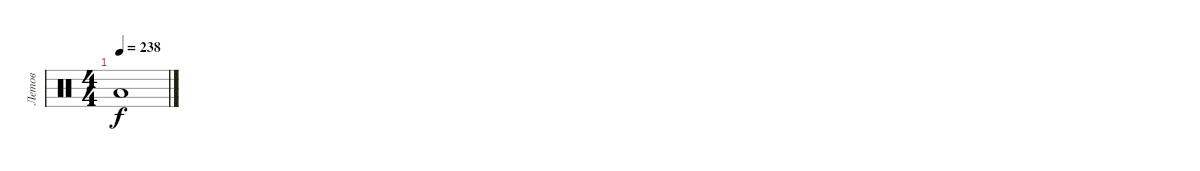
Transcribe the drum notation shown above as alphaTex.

\track ("Летов" "Летов") {instrument percussion}
\staff {score}
\articulation defaults
\ts (4 4)
\tempo 238
\clef neutral
\ks c "Low Tom (hit)".1{dy f}
